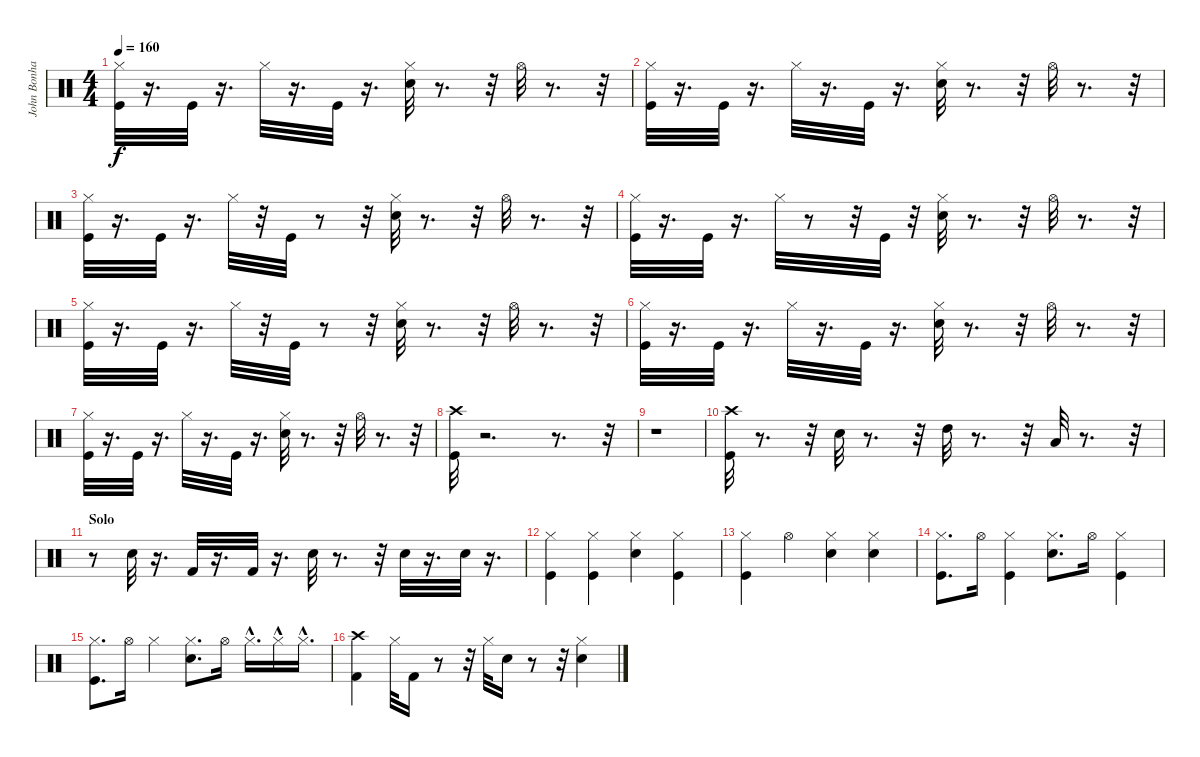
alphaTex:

\track ("John Bonham" "John Bonha") {instrument percussion}
\staff {score}
\articulation defaults
\ts (4 4)
\tempo 160
\clef neutral
\ks c
("Hi-Hat (closed)" "Kick (hit)").32{dy f} r.16{d} "Kick (hit)".32 r.16{d} "Hi-Hat (closed)".32 r.16{d} "Kick (hit)".32 r.16{d} ("Hi-Hat (closed)" "Snare (hit) 2").32 r.8{d} r.32 "Hi-Hat (open)".32 r.8{d} r.32 |
("Hi-Hat (closed)" "Kick (hit)").32 r.16{d} "Kick (hit)".32 r.16{d} "Hi-Hat (closed)".32 r.16{d} "Kick (hit)".32 r.16{d} ("Hi-Hat (closed)" "Snare (hit) 2").32 r.8{d} r.32 "Hi-Hat (open)".32 r.8{d} r.32 |
("Hi-Hat (closed)" "Kick (hit)").32 r.16{d} "Kick (hit)".32 r.16{d} "Hi-Hat (closed)".32 r.32 "Kick (hit)".32 r.8 r.32 ("Hi-Hat (closed)" "Snare (hit) 2").32 r.8{d} r.32 "Hi-Hat (open)".32 r.8{d} r.32 |
("Hi-Hat (closed)" "Kick (hit)").32 r.16{d} "Kick (hit)".32 r.16{d} "Hi-Hat (closed)".32 r.8 r.32 "Kick (hit)".32 r.32 ("Hi-Hat (closed)" "Snare (hit) 2").32 r.8{d} r.32 "Hi-Hat (open)".32 r.8{d} r.32 |
("Hi-Hat (closed)" "Kick (hit)").32 r.16{d} "Kick (hit)".32 r.16{d} "Hi-Hat (closed)".32 r.32 "Kick (hit)".32 r.8 r.32 ("Hi-Hat (closed)" "Snare (hit) 2").32 r.8{d} r.32 "Hi-Hat (open)".32 r.8{d} r.32 |
("Hi-Hat (closed)" "Kick (hit)").32 r.16{d} "Kick (hit)".32 r.16{d} "Hi-Hat (closed)".32 r.16{d} "Kick (hit)".32 r.16{d} ("Hi-Hat (closed)" "Snare (hit) 2").32 r.8{d} r.32 "Hi-Hat (open)".32 r.8{d} r.32 |
("Hi-Hat (closed)" "Kick (hit)").32 r.16{d} "Kick (hit)".32 r.16{d} "Hi-Hat (closed)".32 r.16{d} "Kick (hit)".32 r.16{d} ("Hi-Hat (closed)" "Snare (hit) 2").32 r.8{d} r.32 "Hi-Hat (open)".32 r.8{d} r.32 |
("Crash high (hit)" "Kick (hit)").32 r.2{d} r.8{d} r.32 |
r.1 |
("Crash high (hit)" "Kick (hit)").32 r.8{d} r.32 "Snare (hit) 2".32 r.8{d} r.32 "High Tom (hit)".32 r.8{d} r.32 "Low Tom (hit)".32 r.8{d} r.32 |
\section ("" "Solo")
r.8 "Snare (hit) 2".32 r.16{d} "Kick (hit) 2".32 r.16{d} "Kick (hit) 2".32 r.16{d} "Snare (hit) 2".32 r.8{d} r.32 "Snare (hit) 2".32 r.16{d} "Snare (hit) 2".32 r.16{d} |
("Kick (hit)" "Hi-Hat (closed)").4 ("Kick (hit)" "Hi-Hat (closed)").4 ("Snare (hit) 2" "Hi-Hat (closed)").4 ("Kick (hit)" "Hi-Hat (closed)").4 |
("Kick (hit)" "Hi-Hat (closed)").4 "Hi-Hat (open)".4 ("Snare (hit) 2" "Hi-Hat (closed)").4 ("Snare (hit) 2" "Hi-Hat (closed)").4 |
("Kick (hit)" "Hi-Hat (closed)").8{d} "Hi-Hat (open)".16 ("Kick (hit)" "Hi-Hat (closed)").4 ("Snare (hit) 2" "Hi-Hat (closed)").8{d} "Hi-Hat (open)".16 ("Kick (hit)" "Hi-Hat (closed)").4 |
("Kick (hit)" "Hi-Hat (closed)").8{d} "Hi-Hat (open)".16 "Hi-Hat (closed)".4 ("Snare (hit) 2" "Hi-Hat (closed)").8{d} "Hi-Hat (open)".16 "Hi-Hat (closed)"{hac}.16{d} "Hi-Hat (closed)"{hac}.16 "Hi-Hat (closed)"{hac}.16{d} |
("Kick (hit) 2" "Crash high (hit)").4 "Hi-Hat (closed)".32 "Kick (hit) 2".16 r.8 r.32 "Hi-Hat (closed)".32 "Snare (hit) 2".16 r.8 r.32 ("Hi-Hat (closed)" "Snare (hit) 2").4
